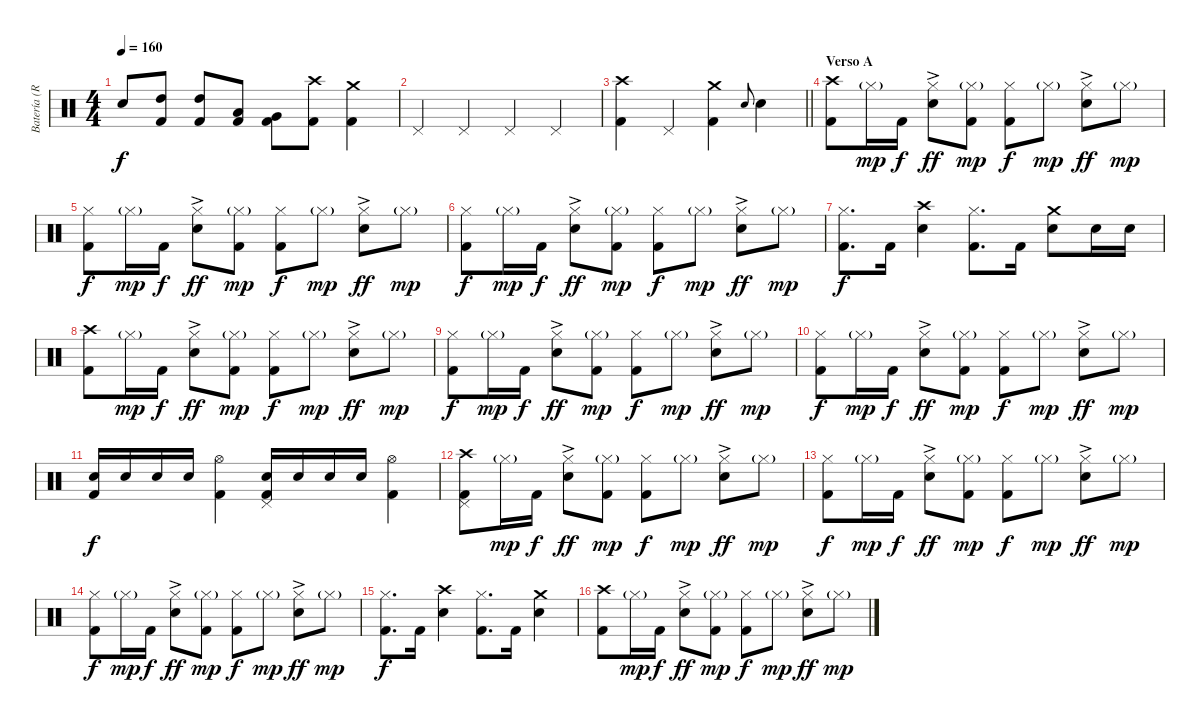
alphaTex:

\track ("Batería (Robert)" "Batería (R") {instrument percussion}
\staff {score}
\articulation defaults
\ts (4 4)
\tempo 160
\clef neutral
\ks c "Electric Snare (hit)".8{dy f}
("High Tom (hit)" "Kick (hit) 2").8 ("High Tom (hit)" "Kick (hit) 2").8 ("Low Tom (hit)" "Kick (hit) 2").8 ("Very Low Tom (hit)" "Kick (hit) 2").8 ("Kick (hit) 2" "Crash high (hit)").8 ("Kick (hit) 2" "Crash medium (hit)").4 |
"Pedal Hi-Hat (hit)".4 "Pedal Hi-Hat (hit)".4 "Pedal Hi-Hat (hit)".4 "Pedal Hi-Hat (hit)".4 |
\barLineRight lightlight
("Kick (hit) 2" "Crash high (hit)").4 "Pedal Hi-Hat (hit)".4 ("Crash medium (hit)" "Kick (hit) 2").4 "Electric Snare (hit)".8{gr onbeat} "Electric Snare (hit)".4 |
\section ("" "Verso A")
("Crash high (hit)" "Kick (hit) 2").8 "Hi-Hat (closed)"{g}.16{dy mp} "Kick (hit) 2".16{dy f} ("Hi-Hat (closed)"{ac} "Electric Snare (hit)").8{dy ff} ("Hi-Hat (closed)"{g} "Kick (hit) 2").8{dy mp} ("Hi-Hat (closed)" "Kick (hit) 2").8{dy f} "Hi-Hat (closed)"{g}.8{dy mp} ("Hi-Hat (closed)"{ac} "Electric Snare (hit)").8{dy ff} "Hi-Hat (closed)"{g}.8{dy mp} |
("Hi-Hat (closed)" "Kick (hit) 2").8{dy f} "Hi-Hat (closed)"{g}.16{dy mp} "Kick (hit) 2".16{dy f} ("Hi-Hat (closed)"{ac} "Electric Snare (hit)").8{dy ff} ("Hi-Hat (closed)"{g} "Kick (hit) 2").8{dy mp} ("Hi-Hat (closed)" "Kick (hit) 2").8{dy f} "Hi-Hat (closed)"{g}.8{dy mp} ("Hi-Hat (closed)"{ac} "Electric Snare (hit)").8{dy ff} "Hi-Hat (closed)"{g}.8{dy mp} |
("Hi-Hat (closed)" "Kick (hit) 2").8{dy f} "Hi-Hat (closed)"{g}.16{dy mp} "Kick (hit) 2".16{dy f} ("Hi-Hat (closed)"{ac} "Electric Snare (hit)").8{dy ff} ("Hi-Hat (closed)"{g} "Kick (hit) 2").8{dy mp} ("Hi-Hat (closed)" "Kick (hit) 2").8{dy f} "Hi-Hat (closed)"{g}.8{dy mp} ("Hi-Hat (closed)"{ac} "Electric Snare (hit)").8{dy ff} "Hi-Hat (closed)"{g}.8{dy mp} |
("Hi-Hat (closed)" "Kick (hit) 2").8{d dy f} "Kick (hit) 2".16 ("Crash high (hit)" "Electric Snare (hit)").4 ("Hi-Hat (closed)" "Kick (hit) 2").8{d} "Kick (hit) 2".16 ("Crash medium (hit)" "Electric Snare (hit)").8 "Electric Snare (hit)".16 "Electric Snare (hit)".16 |
("Crash high (hit)" "Kick (hit) 2").8 "Hi-Hat (closed)"{g}.16{dy mp} "Kick (hit) 2".16{dy f} ("Hi-Hat (closed)"{ac} "Electric Snare (hit)").8{dy ff} ("Hi-Hat (closed)"{g} "Kick (hit) 2").8{dy mp} ("Hi-Hat (closed)" "Kick (hit) 2").8{dy f} "Hi-Hat (closed)"{g}.8{dy mp} ("Hi-Hat (closed)"{ac} "Electric Snare (hit)").8{dy ff} "Hi-Hat (closed)"{g}.8{dy mp} |
("Hi-Hat (closed)" "Kick (hit) 2").8{dy f} "Hi-Hat (closed)"{g}.16{dy mp} "Kick (hit) 2".16{dy f} ("Hi-Hat (closed)"{ac} "Electric Snare (hit)").8{dy ff} ("Hi-Hat (closed)"{g} "Kick (hit) 2").8{dy mp} ("Hi-Hat (closed)" "Kick (hit) 2").8{dy f} "Hi-Hat (closed)"{g}.8{dy mp} ("Hi-Hat (closed)"{ac} "Electric Snare (hit)").8{dy ff} "Hi-Hat (closed)"{g}.8{dy mp} |
("Hi-Hat (closed)" "Kick (hit) 2").8{dy f} "Hi-Hat (closed)"{g}.16{dy mp} "Kick (hit) 2".16{dy f} ("Hi-Hat (closed)"{ac} "Electric Snare (hit)").8{dy ff} ("Hi-Hat (closed)"{g} "Kick (hit) 2").8{dy mp} ("Hi-Hat (closed)" "Kick (hit) 2").8{dy f} "Hi-Hat (closed)"{g}.8{dy mp} ("Hi-Hat (closed)"{ac} "Electric Snare (hit)").8{dy ff} "Hi-Hat (closed)"{g}.8{dy mp} |
("Electric Snare (hit)" "Kick (hit) 2").16{dy f} "Electric Snare (hit)".16 "Electric Snare (hit)".16 "Electric Snare (hit)".16 ("Kick (hit) 2" "Hi-Hat (open)").4 ("Kick (hit) 2" "Electric Snare (hit)" "Pedal Hi-Hat (hit)").16 "Electric Snare (hit)".16 "Electric Snare (hit)".16 "Electric Snare (hit)".16 ("Kick (hit) 2" "Hi-Hat (open)").4 |
("Crash high (hit)" "Kick (hit) 2" "Pedal Hi-Hat (hit)").8 "Hi-Hat (closed)"{g}.16{dy mp} "Kick (hit) 2".16{dy f} ("Hi-Hat (closed)"{ac} "Electric Snare (hit)").8{dy ff} ("Hi-Hat (closed)"{g} "Kick (hit) 2").8{dy mp} ("Hi-Hat (closed)" "Kick (hit) 2").8{dy f} "Hi-Hat (closed)"{g}.8{dy mp} ("Hi-Hat (closed)"{ac} "Electric Snare (hit)").8{dy ff} "Hi-Hat (closed)"{g}.8{dy mp} |
("Hi-Hat (closed)" "Kick (hit) 2").8{dy f} "Hi-Hat (closed)"{g}.16{dy mp} "Kick (hit) 2".16{dy f} ("Hi-Hat (closed)"{ac} "Electric Snare (hit)").8{dy ff} ("Hi-Hat (closed)"{g} "Kick (hit) 2").8{dy mp} ("Hi-Hat (closed)" "Kick (hit) 2").8{dy f} "Hi-Hat (closed)"{g}.8{dy mp} ("Hi-Hat (closed)"{ac} "Electric Snare (hit)").8{dy ff} "Hi-Hat (closed)"{g}.8{dy mp} |
("Hi-Hat (closed)" "Kick (hit) 2").8{dy f} "Hi-Hat (closed)"{g}.16{dy mp} "Kick (hit) 2".16{dy f} ("Hi-Hat (closed)"{ac} "Electric Snare (hit)").8{dy ff} ("Hi-Hat (closed)"{g} "Kick (hit) 2").8{dy mp} ("Hi-Hat (closed)" "Kick (hit) 2").8{dy f} "Hi-Hat (closed)"{g}.8{dy mp} ("Hi-Hat (closed)"{ac} "Electric Snare (hit)").8{dy ff} "Hi-Hat (closed)"{g}.8{dy mp} |
("Hi-Hat (closed)" "Kick (hit) 2").8{d dy f} "Kick (hit) 2".16 ("Crash high (hit)" "Electric Snare (hit)").4 ("Hi-Hat (closed)" "Kick (hit) 2").8{d} "Kick (hit) 2".16 ("Crash medium (hit)" "Electric Snare (hit)").4 |
("Crash high (hit)" "Kick (hit) 2").8 "Hi-Hat (closed)"{g}.16{dy mp} "Kick (hit) 2".16{dy f} ("Hi-Hat (closed)"{ac} "Electric Snare (hit)").8{dy ff} ("Hi-Hat (closed)"{g} "Kick (hit) 2").8{dy mp} ("Hi-Hat (closed)" "Kick (hit) 2").8{dy f} "Hi-Hat (closed)"{g}.8{dy mp} ("Hi-Hat (closed)"{ac} "Electric Snare (hit)").8{dy ff} "Hi-Hat (closed)"{g}.8{dy mp}
